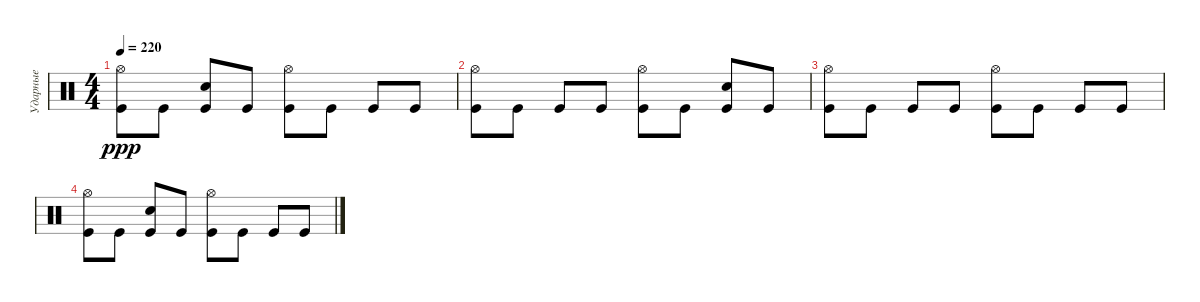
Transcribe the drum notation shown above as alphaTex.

\track ("Ударные" "Ударные") {instrument percussion}
\staff {score}
\articulation defaults
\ts (4 4)
\tempo 220
\clef neutral
\ks c
("Hi-Hat (open)" "Kick (hit)").8{dy ppp} "Kick (hit)".8 ("Electric Snare (hit)" "Kick (hit)").8 "Kick (hit)".8 ("Hi-Hat (open)" "Kick (hit)").8 "Kick (hit)".8 "Kick (hit)".8 "Kick (hit)".8 |
("Hi-Hat (open)" "Kick (hit)").8 "Kick (hit)".8 "Kick (hit)".8 "Kick (hit)".8 ("Hi-Hat (open)" "Kick (hit)").8 "Kick (hit)".8 ("Electric Snare (hit)" "Kick (hit)").8 "Kick (hit)".8 |
("Hi-Hat (open)" "Kick (hit)").8 "Kick (hit)".8 "Kick (hit)".8 "Kick (hit)".8 ("Hi-Hat (open)" "Kick (hit)").8 "Kick (hit)".8 "Kick (hit)".8 "Kick (hit)".8 |
("Hi-Hat (open)" "Kick (hit)").8 "Kick (hit)".8 ("Electric Snare (hit)" "Kick (hit)").8 "Kick (hit)".8 ("Hi-Hat (open)" "Kick (hit)").8 "Kick (hit)".8 "Kick (hit)".8 "Kick (hit)".8
